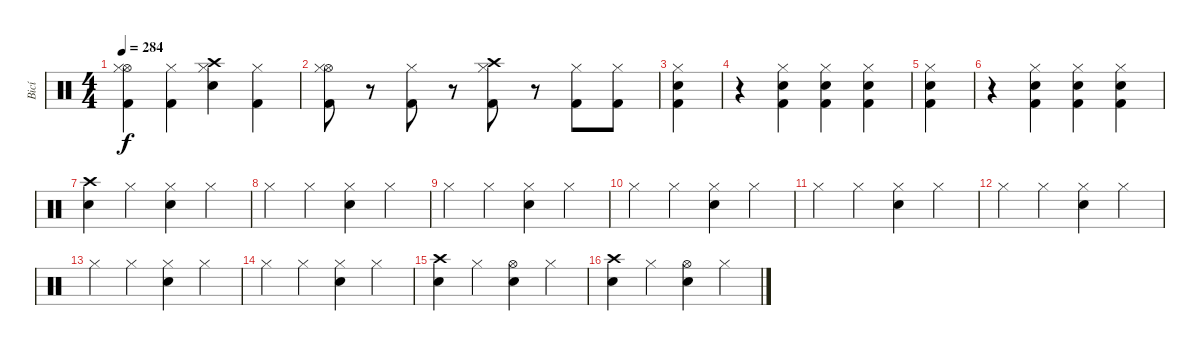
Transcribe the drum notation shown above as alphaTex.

\track ("Bicí" "Bicí") {instrument percussion}
\staff {score}
\articulation defaults
\ts (4 4)
\tempo 284
\clef neutral
\ks c
("Hi-Hat (open)" "Hi-Hat (closed)" "Kick (hit) 2").4{dy f} ("Hi-Hat (closed)" "Kick (hit) 2").4 ("Crash high (hit)" "Hi-Hat (closed)" "Electric Snare (hit)").4 ("Hi-Hat (closed)" "Kick (hit) 2").4 |
("Hi-Hat (open)" "Hi-Hat (closed)" "Kick (hit) 2").8 r.8 ("Hi-Hat (closed)" "Kick (hit) 2").8 r.8 ("Crash high (hit)" "Hi-Hat (closed)" "Kick (hit) 2").8 r.8 ("Hi-Hat (closed)" "Kick (hit) 2").8 ("Hi-Hat (closed)" "Kick (hit) 2").8 |
("Hi-Hat (closed)" "Electric Snare (hit)" "Kick (hit) 2").4 |
r.4 ("Hi-Hat (closed)" "Electric Snare (hit)" "Kick (hit) 2").4 ("Hi-Hat (closed)" "Electric Snare (hit)" "Kick (hit) 2").4 ("Hi-Hat (closed)" "Electric Snare (hit)" "Kick (hit) 2").4 |
("Hi-Hat (closed)" "Electric Snare (hit)" "Kick (hit) 2").4 |
r.4 ("Hi-Hat (closed)" "Electric Snare (hit)" "Kick (hit) 2").4 ("Hi-Hat (closed)" "Electric Snare (hit)" "Kick (hit) 2").4 ("Hi-Hat (closed)" "Electric Snare (hit)" "Kick (hit) 2").4 |
("Crash high (hit)" "Electric Snare (hit)").4 "Hi-Hat (closed)".4 ("Hi-Hat (closed)" "Electric Snare (hit)").4 "Hi-Hat (closed)".4 |
"Hi-Hat (closed)".4 "Hi-Hat (closed)".4 ("Hi-Hat (closed)" "Electric Snare (hit)").4 "Hi-Hat (closed)".4 |
"Hi-Hat (closed)".4 "Hi-Hat (closed)".4 ("Hi-Hat (closed)" "Electric Snare (hit)").4 "Hi-Hat (closed)".4 |
"Hi-Hat (closed)".4 "Hi-Hat (closed)".4 ("Hi-Hat (closed)" "Electric Snare (hit)").4 "Hi-Hat (closed)".4 |
"Hi-Hat (closed)".4 "Hi-Hat (closed)".4 ("Hi-Hat (closed)" "Electric Snare (hit)").4 "Hi-Hat (closed)".4 |
"Hi-Hat (closed)".4 "Hi-Hat (closed)".4 ("Hi-Hat (closed)" "Electric Snare (hit)").4 "Hi-Hat (closed)".4 |
"Hi-Hat (closed)".4 "Hi-Hat (closed)".4 ("Hi-Hat (closed)" "Electric Snare (hit)").4 "Hi-Hat (closed)".4 |
"Hi-Hat (closed)".4 "Hi-Hat (closed)".4 ("Hi-Hat (closed)" "Electric Snare (hit)").4 "Hi-Hat (closed)".4 |
("Crash high (hit)" "Electric Snare (hit)").4 "Hi-Hat (closed)".4 ("Hi-Hat (open)" "Electric Snare (hit)").4 "Hi-Hat (closed)".4 |
("Crash high (hit)" "Electric Snare (hit)").4 "Hi-Hat (closed)".4 ("Hi-Hat (open)" "Electric Snare (hit)").4 "Hi-Hat (closed)".4
